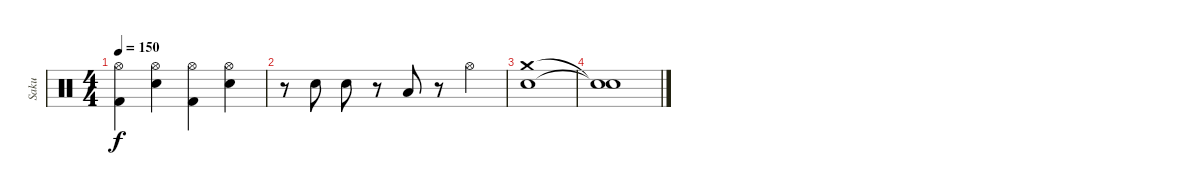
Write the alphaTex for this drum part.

\track ("Saku" "Saku") {instrument percussion}
\staff {score}
\articulation defaults
\ts (4 4)
\tempo 150
\clef neutral
\ks c
("Hi-Hat (open)" "Kick (hit) 2").4{dy f} ("Hi-Hat (open)" "Electric Snare (hit)").4 ("Hi-Hat (open)" "Kick (hit) 2").4 ("Hi-Hat (open)" "Electric Snare (hit)").4 |
r.8 "Electric Snare (hit)".8 "Electric Snare (hit)".8 r.8 "Low Tom (hit)".8 r.8 "Hi-Hat (open)".4 |
("Crash medium (hit)" "Electric Snare (hit)").1 |
("Snare (hit)"{t} "Snare (hit)"{t}).1
